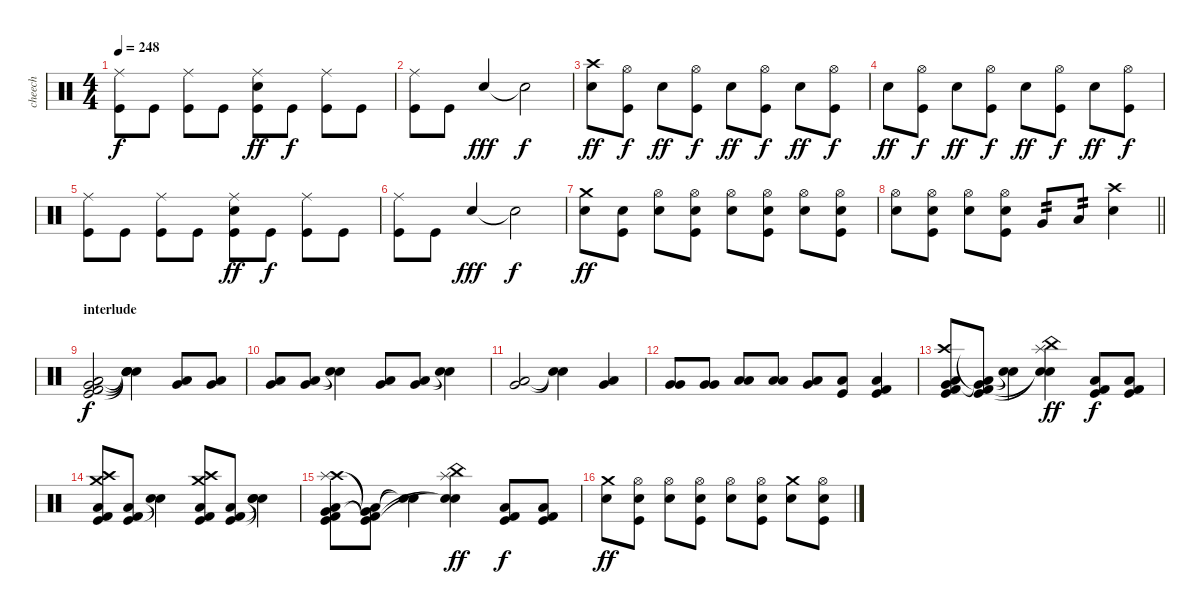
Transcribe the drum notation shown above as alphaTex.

\track ("cheech" "cheech") {instrument percussion}
\staff {score}
\articulation defaults
\ts (4 4)
\tempo 248
\clef neutral
\ks c
("Ride (middle)" "Kick (hit)").8{dy f} "Kick (hit)".8 ("Ride (middle)" "Kick (hit)").8 "Kick (hit)".8 ("Ride (middle)" "Electric Snare (hit)" "Kick (hit)").8{dy ff} "Kick (hit)".8{dy f} ("Ride (middle)" "Kick (hit)").8 "Kick (hit)".8 |
("Ride (middle)" "Kick (hit)").8 "Kick (hit)".8 "Electric Snare (hit)".4{dy fff beam Up} "Electric Snare (hit)"{t}.2{dy f} |
("Crash high (hit)" "Electric Snare (hit)").8{dy ff} ("Hi-Hat (open)" "Kick (hit)").8{dy f} "Electric Snare (hit)".8{dy ff} ("Hi-Hat (open)" "Kick (hit)").8{dy f} "Electric Snare (hit)".8{dy ff} ("Hi-Hat (open)" "Kick (hit)").8{dy f} "Electric Snare (hit)".8{dy ff} ("Hi-Hat (open)" "Kick (hit)").8{dy f} |
"Electric Snare (hit)".8{dy ff} ("Hi-Hat (open)" "Kick (hit)").8{dy f} "Electric Snare (hit)".8{dy ff} ("Hi-Hat (open)" "Kick (hit)").8{dy f} "Electric Snare (hit)".8{dy ff} ("Hi-Hat (open)" "Kick (hit)").8{dy f} "Electric Snare (hit)".8{dy ff} ("Hi-Hat (open)" "Kick (hit)").8{dy f} |
("Ride (middle)" "Kick (hit)").8 "Kick (hit)".8 ("Ride (middle)" "Kick (hit)").8 "Kick (hit)".8 ("Ride (middle)" "Electric Snare (hit)" "Kick (hit)").8{dy ff} "Kick (hit)".8{dy f} ("Ride (middle)" "Kick (hit)").8 "Kick (hit)".8 |
("Ride (middle)" "Kick (hit)").8 "Kick (hit)".8 "Electric Snare (hit)".4{dy fff beam Up} "Electric Snare (hit)"{t}.2{dy f} |
("Crash medium (hit)" "Electric Snare (hit)").8{dy ff} ("Electric Snare (hit)" "Kick (hit)").8 ("Hi-Hat (open)" "Electric Snare (hit)").8 ("Hi-Hat (open)" "Electric Snare (hit)" "Kick (hit)").8 ("Hi-Hat (open)" "Electric Snare (hit)").8 ("Hi-Hat (open)" "Electric Snare (hit)" "Kick (hit)").8 ("Hi-Hat (open)" "Electric Snare (hit)").8 ("Hi-Hat (open)" "Electric Snare (hit)" "Kick (hit)").8 |
\barLineRight lightlight
("Hi-Hat (open)" "Electric Snare (hit)").8 ("Hi-Hat (open)" "Electric Snare (hit)" "Kick (hit)").8 ("Hi-Hat (open)" "Electric Snare (hit)").8 ("Hi-Hat (open)" "Electric Snare (hit)" "Kick (hit)").8 "Very Low Tom (hit)".8{tp 2} "Low Floor Tom (hit)".8{tp 2} ("Crash high (hit)" "Electric Snare (hit)").4 |
\section ("" "interlude")
("Very Low Tom (hit)" "Low Floor Tom (hit)" "Kick (hit) 2" "Kick (hit)").2{dy f} ("Snare (hit)"{t} "Snare (hit)"{t} "Snare (hit)"{t} "Snare (hit)"{t}).4 ("Very Low Tom (hit)" "Low Floor Tom (hit)").8 ("Very Low Tom (hit)" "Low Floor Tom (hit)").8 |
("Very Low Tom (hit)" "Low Floor Tom (hit)").8 ("Very Low Tom (hit)" "Low Floor Tom (hit)").8 ("Snare (hit)"{t} "Snare (hit)"{t}).4 ("Very Low Tom (hit)" "Low Floor Tom (hit)").8 ("Very Low Tom (hit)" "Low Floor Tom (hit)").8 ("Snare (hit)"{t} "Snare (hit)"{t}).4 |
("Very Low Tom (hit)" "Low Floor Tom (hit)").2 ("Snare (hit)"{t} "Snare (hit)"{t}).4 ("Very Low Tom (hit)" "Low Floor Tom (hit)").4 |
("Very Low Tom (hit)" "Very Low Tom (hit)").8 ("Very Low Tom (hit)" "Very Low Tom (hit)").8 ("Low Floor Tom (hit)" "Low Floor Tom (hit)").8 ("Low Floor Tom (hit)" "Low Floor Tom (hit)").8 ("Very Low Tom (hit)" "Low Floor Tom (hit)").8 ("Low Floor Tom (hit)" "Kick (hit)").8 ("Low Floor Tom (hit)" "Kick (hit) 2" "Kick (hit)").4 |
("Crash high (hit)" "Very Low Tom (hit)" "Low Floor Tom (hit)" "Kick (hit) 2" "Kick (hit)").8 ("Very Low Tom (hit)"{t} "Low Floor Tom (hit)"{t} "Kick (hit) 2" "Kick (hit)").8 ("Snare (hit)"{t} "Snare (hit)"{t}).4 ("Splash (hit)" "China (hit)" "Snare (hit)"{t} "Snare (hit)"{t}).4{dy ff} ("Low Floor Tom (hit)" "Kick (hit) 2" "Kick (hit)").8{dy f} ("Low Floor Tom (hit)" "Kick (hit) 2" "Kick (hit)").8 |
("Crash high (hit)" "Crash medium (hit)" "Low Floor Tom (hit)" "Kick (hit) 2" "Kick (hit)").8 ("Low Floor Tom (hit)" "Kick (hit) 2" "Kick (hit)").8 ("Snare (hit)"{t} "Snare (hit)"{t}).4 ("Crash high (hit)" "Crash medium (hit)" "Low Floor Tom (hit)" "Kick (hit) 2" "Kick (hit)").8 ("Low Floor Tom (hit)" "Kick (hit) 2" "Kick (hit)").8 ("Snare (hit)"{t} "Snare (hit)"{t} "Snare (hit)"{t}).4 |
("Crash high (hit)" "Splash (hit)" "Very Low Tom (hit)" "Low Floor Tom (hit)" "Kick (hit) 2" "Kick (hit)").8 ("Very Low Tom (hit)"{t} "Low Floor Tom (hit)"{t} "Kick (hit) 2"{t} "Kick (hit)"{t}).8 ("Snare (hit)"{t} "Snare (hit)"{t}).4 ("Splash (hit)" "China (hit)" "Snare (hit)"{t} "Snare (hit)"{t}).4{dy ff} ("Low Floor Tom (hit)" "Kick (hit) 2" "Kick (hit)").8{dy f} ("Low Floor Tom (hit)" "Kick (hit) 2" "Kick (hit)").8 |
("Crash medium (hit)" "Electric Snare (hit)").8{dy ff} ("Hi-Hat (open)" "Electric Snare (hit)" "Kick (hit)").8 ("Hi-Hat (open)" "Electric Snare (hit)").8 ("Hi-Hat (open)" "Electric Snare (hit)" "Kick (hit)").8 ("Hi-Hat (open)" "Electric Snare (hit)").8 ("Hi-Hat (open)" "Electric Snare (hit)" "Kick (hit)").8 ("Crash medium (hit)" "Electric Snare (hit)").8 ("Hi-Hat (open)" "Electric Snare (hit)" "Kick (hit)").8
